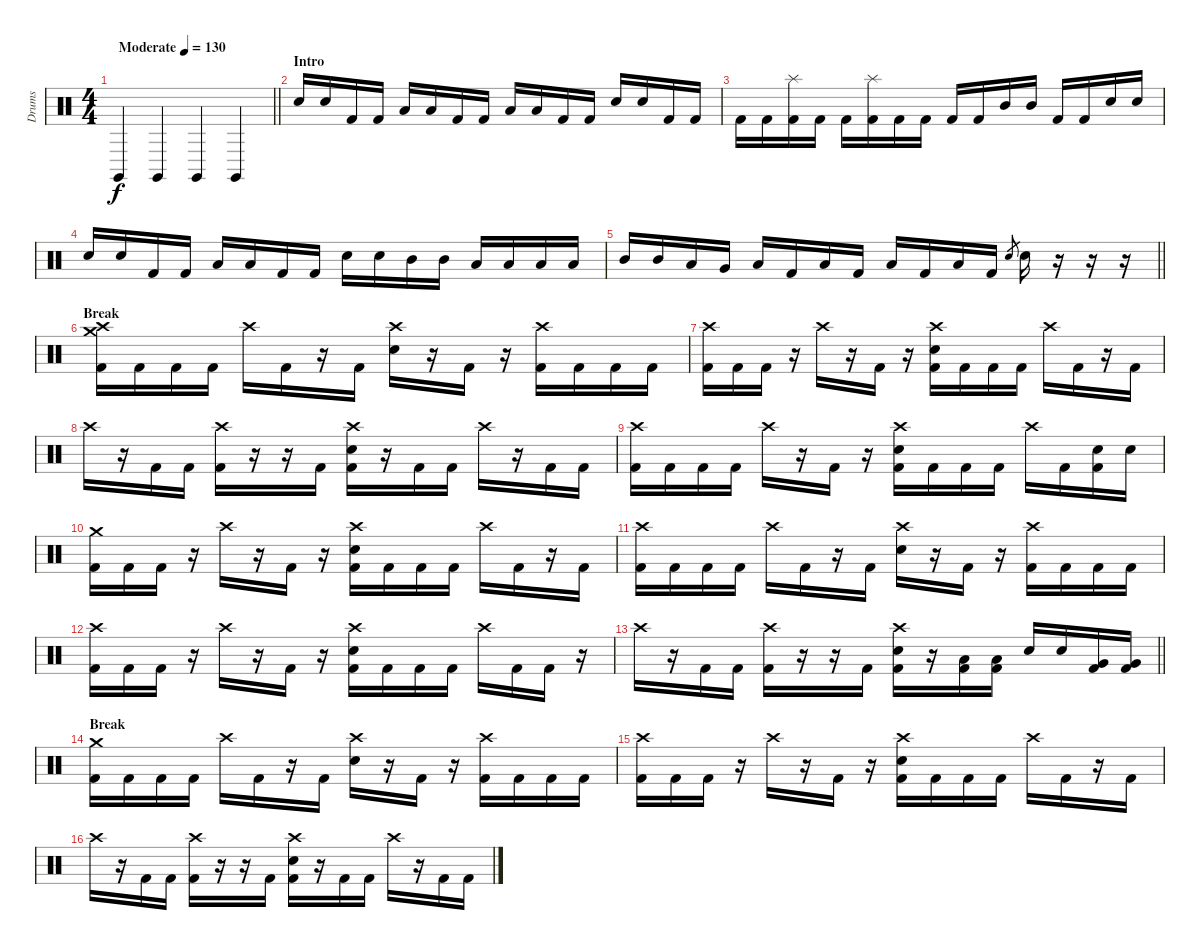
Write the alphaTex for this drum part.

\track ("Drums" "Drums") {instrument percussion}
\staff {score}
\articulation defaults
\ts (4 4)
\tempo (130 "Moderate")
\clef neutral
\barLineRight lightlight
\ks c "Claves (hit)".4{dy f} "Claves (hit)".4 "Claves (hit)".4 "Claves (hit)".4
|
\section ("" "Intro")
"Electric Snare (hit)".16 "Electric Snare (hit)".16 "Kick (hit) 2".16 "Kick (hit) 2".16 "Low Tom (hit)".16 "Low Tom (hit)".16 "Kick (hit) 2".16 "Kick (hit) 2".16 "Low Floor Tom (hit)".16 "Low Floor Tom (hit)".16 "Kick (hit) 2".16 "Kick (hit) 2".16 "Electric Snare (hit)".16 "Electric Snare (hit)".16 "Kick (hit) 2".16 "Kick (hit) 2".16 |
"Kick (hit) 2".16 "Kick (hit) 2".16 ("Splash (hit)" "Kick (hit) 2").16 "Kick (hit) 2".16 "Kick (hit) 2".16 ("Splash (hit)" "Kick (hit) 2").16 "Kick (hit) 2".16 "Kick (hit) 2".16 "Kick (hit) 2".16 "Kick (hit) 2".16 "Mid Tom (hit)".16 "Mid Tom (hit)".16 "Kick (hit) 2".16 "Kick (hit) 2".16 "Electric Snare (hit)".16 "Electric Snare (hit)".16 |
"Electric Snare (hit)".16 "Electric Snare (hit)".16 "Kick (hit) 2".16 "Kick (hit) 2".16 "Low Tom (hit)".16 "Low Tom (hit)".16 "Kick (hit) 2".16 "Kick (hit) 2".16 "Electric Snare (hit)".16 "Electric Snare (hit)".16 "Mid Tom (hit)".16 "Mid Tom (hit)".16 "Low Tom (hit)".16 "Low Tom (hit)".16 "Low Floor Tom (hit)".16 "Low Floor Tom (hit)".16 |
\barLineRight lightlight "Mid Tom (hit)".16 "Mid Tom (hit)".16 "Low Tom (hit)".16 "Very Low Tom (hit)".16 "Low Floor Tom (hit)".16 "Kick (hit) 2".16 "Low Floor Tom (hit)".16 "Kick (hit) 2".16 "Low Floor Tom (hit)".16 "Kick (hit) 2".16 "Low Floor Tom (hit)".16 "Kick (hit) 2".16 "Electric Snare (hit)".8{gr} "Electric Snare (hit)".16
r.16 r.16 r.16 |
\section ("" "Break")
("Crash medium (hit)" "Crash high (hit)" "Kick (hit) 2").16 "Kick (hit) 2".16 "Kick (hit) 2".16 "Kick (hit) 2".16 "Crash high (hit)".16 "Kick (hit) 2".16 r.16 "Kick (hit) 2".16 ("Crash high (hit)" "Electric Snare (hit)").16 r.16 "Kick (hit) 2".16 r.16 ("Crash high (hit)" "Kick (hit) 2").16 "Kick (hit) 2".16 "Kick (hit) 2".16 "Kick (hit) 2".16 |
("Crash high (hit)" "Kick (hit) 2").16 "Kick (hit) 2".16 "Kick (hit) 2".16 r.16 "Crash high (hit)".16 r.16 "Kick (hit) 2".16 r.16 ("Crash high (hit)" "Electric Snare (hit)" "Kick (hit) 2").16 "Kick (hit) 2".16 "Kick (hit) 2".16 "Kick (hit) 2".16 "Crash high (hit)".16 "Kick (hit) 2".16 r.16 "Kick (hit) 2".16 |
"Crash high (hit)".16 r.16 "Kick (hit) 2".16 "Kick (hit) 2".16 ("Crash high (hit)" "Kick (hit) 2").16 r.16 r.16 "Kick (hit) 2".16 ("Crash high (hit)" "Electric Snare (hit)" "Kick (hit) 2").16 r.16 "Kick (hit) 2".16 "Kick (hit) 2".16 "Crash high (hit)".16 r.16 "Kick (hit) 2".16 "Kick (hit) 2".16 |
("Crash high (hit)" "Kick (hit) 2").16 "Kick (hit) 2".16 "Kick (hit) 2".16 "Kick (hit) 2".16 "Crash high (hit)".16 r.16 "Kick (hit) 2".16 r.16 ("Crash high (hit)" "Electric Snare (hit)" "Kick (hit) 2").16 "Kick (hit) 2".16 "Kick (hit) 2".16 "Kick (hit) 2".16 "Crash high (hit)".16 "Kick (hit) 2".16 ("Electric Snare (hit)" "Kick (hit) 2").16 "Electric Snare (hit)".16 |
("Crash medium (hit)" "Kick (hit) 2").16 "Kick (hit) 2".16 "Kick (hit) 2".16 r.16 "Crash high (hit)".16 r.16 "Kick (hit) 2".16 r.16 ("Crash high (hit)" "Electric Snare (hit)" "Kick (hit) 2").16 "Kick (hit) 2".16 "Kick (hit) 2".16 "Kick (hit) 2".16 "Crash high (hit)".16 "Kick (hit) 2".16 r.16 "Kick (hit) 2".16 |
("Crash high (hit)" "Kick (hit) 2").16 "Kick (hit) 2".16 "Kick (hit) 2".16 "Kick (hit) 2".16 "Crash high (hit)".16 "Kick (hit) 2".16 r.16 "Kick (hit) 2".16 ("Crash high (hit)" "Electric Snare (hit)").16 r.16 "Kick (hit) 2".16 r.16 ("Crash high (hit)" "Kick (hit) 2").16 "Kick (hit) 2".16 "Kick (hit) 2".16 "Kick (hit) 2".16 |
("Crash high (hit)" "Kick (hit) 2").16 "Kick (hit) 2".16 "Kick (hit) 2".16 r.16 "Crash high (hit)".16 r.16 "Kick (hit) 2".16 r.16 ("Crash high (hit)" "Electric Snare (hit)" "Kick (hit) 2").16 "Kick (hit) 2".16 "Kick (hit) 2".16 "Kick (hit) 2".16 "Crash high (hit)".16 "Kick (hit) 2".16 "Kick (hit) 2".16 r.16 |
\barLineRight lightlight "Crash high (hit)".16
r.16 "Kick (hit) 2".16 "Kick (hit) 2".16 ("Crash high (hit)" "Kick (hit) 2").16 r.16 r.16 "Kick (hit) 2".16 ("Crash high (hit)" "Electric Snare (hit)" "Kick (hit) 2").16 r.16 ("Low Tom (hit)" "Kick (hit) 2").16 ("Low Tom (hit)" "Kick (hit) 2").16 "Electric Snare (hit)".16 "Electric Snare (hit)".16 ("Very Low Tom (hit)" "Kick (hit) 2").16 ("Very Low Tom (hit)" "Kick (hit) 2").16 |
\section ("" "Break")
("Crash medium (hit)" "Kick (hit) 2").16 "Kick (hit) 2".16 "Kick (hit) 2".16 "Kick (hit) 2".16 "Crash high (hit)".16 "Kick (hit) 2".16 r.16 "Kick (hit) 2".16 ("Crash high (hit)" "Electric Snare (hit)").16 r.16 "Kick (hit) 2".16 r.16 ("Crash high (hit)" "Kick (hit) 2").16 "Kick (hit) 2".16 "Kick (hit) 2".16 "Kick (hit) 2".16 |
("Crash high (hit)" "Kick (hit) 2").16 "Kick (hit) 2".16 "Kick (hit) 2".16 r.16 "Crash high (hit)".16 r.16 "Kick (hit) 2".16 r.16 ("Crash high (hit)" "Electric Snare (hit)" "Kick (hit) 2").16 "Kick (hit) 2".16 "Kick (hit) 2".16 "Kick (hit) 2".16 "Crash high (hit)".16 "Kick (hit) 2".16 r.16 "Kick (hit) 2".16 |
"Crash high (hit)".16 r.16 "Kick (hit) 2".16 "Kick (hit) 2".16 ("Crash high (hit)" "Kick (hit) 2").16 r.16 r.16 "Kick (hit) 2".16 ("Crash high (hit)" "Electric Snare (hit)" "Kick (hit) 2").16 r.16 "Kick (hit) 2".16 "Kick (hit) 2".16 "Crash high (hit)".16 r.16 "Kick (hit) 2".16 "Kick (hit) 2".16
